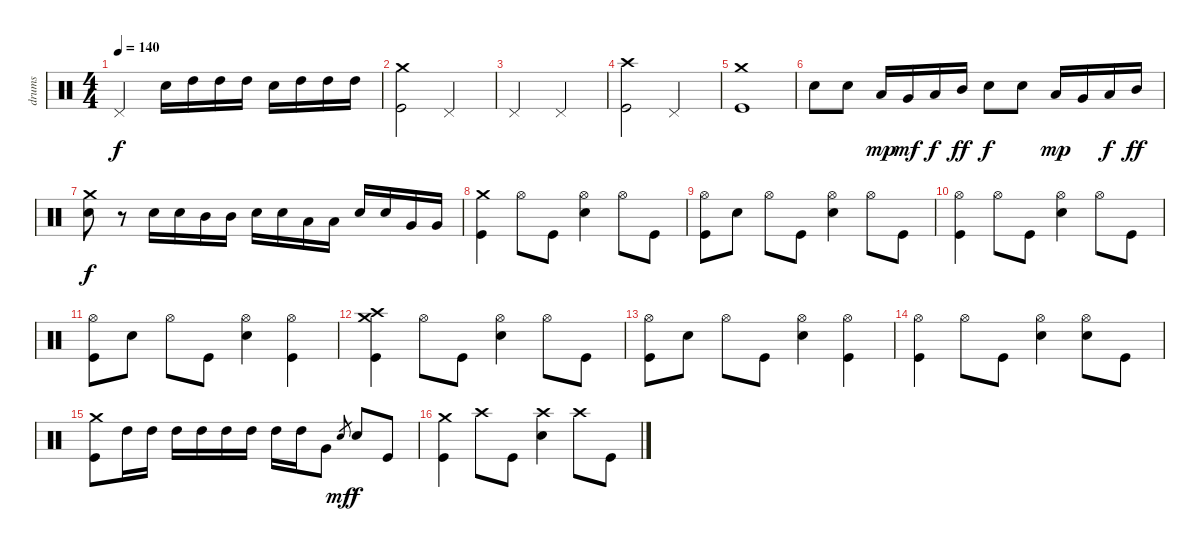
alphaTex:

\track ("drums" "drums") {instrument percussion}
\staff {score}
\articulation defaults
\ts (4 4)
\tempo 140
\clef neutral
\ks c "Pedal Hi-Hat (hit)".2{dy f} "Snare (hit) 2".16 "High Tom (hit)".16 "High Tom (hit)".16 "High Tom (hit)".16 "Snare (hit) 2".16 "High Tom (hit)".16 "High Tom (hit)".16 "High Tom (hit)".16
|
("Crash medium (hit)" "Kick (hit)").2 "Pedal Hi-Hat (hit)".2 |
"Pedal Hi-Hat (hit)".2 "Pedal Hi-Hat (hit)".2 |
("Crash high (hit)" "Kick (hit)").2 "Pedal Hi-Hat (hit)".2 |
("Kick (hit)" "Crash medium (hit)").1 |
"Snare (hit) 2".8 "Snare (hit) 2".8 "Low Floor Tom (hit)".16{dy mp} "Very Low Tom (hit)".16{dy mf} "Low Tom (hit)".16{dy f} "Mid Tom (hit)".16{dy ff} "Snare (hit) 2".8{dy f} "Snare (hit) 2".8 "Low Floor Tom (hit)".16{dy mp} "Very Low Tom (hit)".16 "Low Tom (hit)".16{dy f} "Mid Tom (hit)".16{dy ff} |
("Snare (hit) 2" "Crash medium (hit)").8{dy f} r.8 "Snare (hit) 2".16 "Snare (hit) 2".16 "Mid Tom (hit)".16 "Mid Tom (hit)".16 "Snare (hit) 2".16 "Snare (hit) 2".16 "Low Tom (hit)".16 "Low Tom (hit)".16 "Snare (hit) 2".16 "Snare (hit) 2".16 "Very Low Tom (hit)".16 "Very Low Tom (hit)".16 |
("Crash medium (hit)" "Kick (hit)").4 "Hi-Hat (open)".8 "Kick (hit)".8 ("Hi-Hat (open)" "Snare (hit) 2").4 "Hi-Hat (open)".8 "Kick (hit)".8 |
("Hi-Hat (open)" "Kick (hit)").8 "Snare (hit) 2".8 "Hi-Hat (open)".8 "Kick (hit)".8 ("Hi-Hat (open)" "Snare (hit) 2").4 "Hi-Hat (open)".8 "Kick (hit)".8 |
("Hi-Hat (open)" "Kick (hit)").4 "Hi-Hat (open)".8 "Kick (hit)".8 ("Hi-Hat (open)" "Snare (hit) 2").4 "Hi-Hat (open)".8 "Kick (hit)".8 |
("Hi-Hat (open)" "Kick (hit)").8 "Snare (hit) 2".8 "Hi-Hat (open)".8 "Kick (hit)".8 ("Hi-Hat (open)" "Snare (hit) 2").4 ("Hi-Hat (open)" "Kick (hit)").4 |
("Crash medium (hit)" "Crash high (hit)" "Kick (hit)").4 "Hi-Hat (open)".8 "Kick (hit)".8 ("Hi-Hat (open)" "Snare (hit) 2").4 "Hi-Hat (open)".8 "Kick (hit)".8 |
("Hi-Hat (open)" "Kick (hit)").8 "Snare (hit) 2".8 "Hi-Hat (open)".8 "Kick (hit)".8 ("Hi-Hat (open)" "Snare (hit) 2").4 ("Hi-Hat (open)" "Kick (hit)").4 |
("Hi-Hat (open)" "Kick (hit)").4 "Hi-Hat (open)".8 "Kick (hit)".8 ("Hi-Hat (open)" "Snare (hit) 2").4 ("Hi-Hat (open)" "Snare (hit) 2").8 "Kick (hit)".8 |
("Crash medium (hit)" "Kick (hit)").8 "High Tom (hit)".16 "High Tom (hit)".16 "High Tom (hit)".16 "High Tom (hit)".16 "High Tom (hit)".16 "High Tom (hit)".16 "High Tom (hit)".16 "High Tom (hit)".16 "Very Low Tom (hit)".8 "Snare (hit)".8{gr dy mf} "Snare (hit) 2".8{dy f} "Kick (hit)".8 |
("Crash medium (hit)" "Kick (hit)").4 "Crash high (hit)".8 "Kick (hit)".8 ("Crash high (hit)" "Snare (hit) 2").4 "Crash high (hit)".8 "Kick (hit)".8
